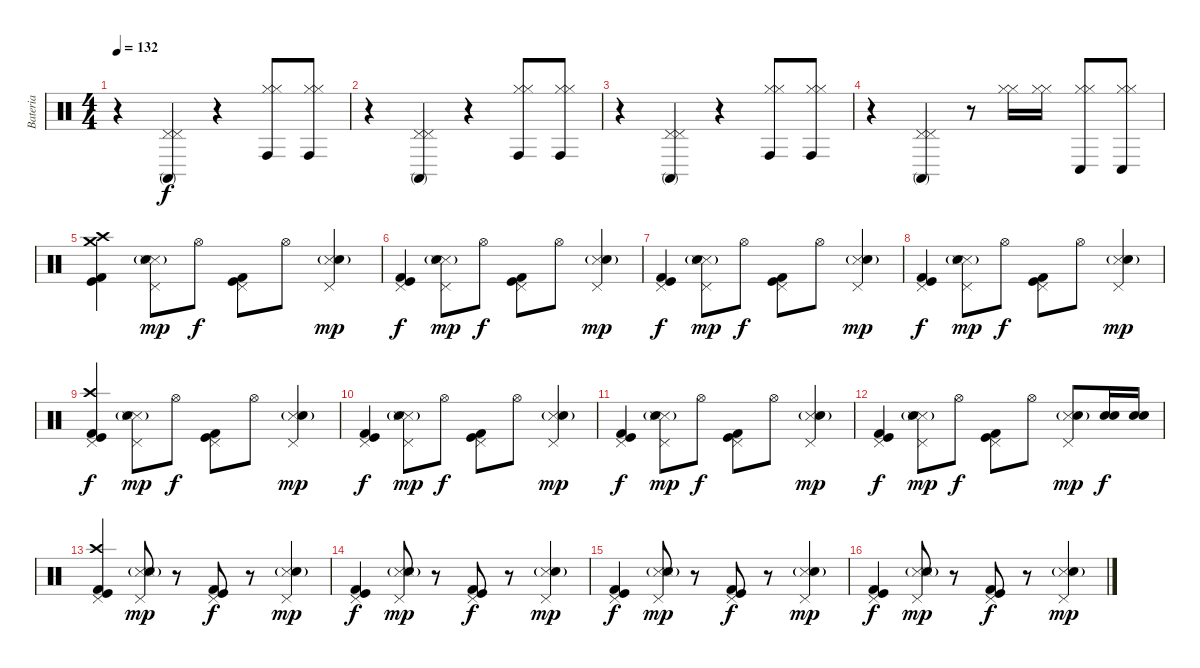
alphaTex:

\track ("Bateria" "Bateria") {instrument percussion}
\staff {score}
\articulation defaults
\ts (4 4)
\tempo 132
\clef neutral
\ks c
r.4{dy f} ("Pedal Hi-Hat (hit)" "Pedal Hi-Hat (hit)" "Conga high (mute)").4 r.4 ("Hi-Hat (closed)" "Hi-Hat (closed)" "Conga high (hit)").8 ("Hi-Hat (closed)" "Hi-Hat (closed)" "Conga high (hit)").8 |
r.4 ("Pedal Hi-Hat (hit)" "Pedal Hi-Hat (hit)" "Conga high (mute)").4 r.4 ("Hi-Hat (closed)" "Hi-Hat (closed)" "Conga high (hit)").8 ("Hi-Hat (closed)" "Hi-Hat (closed)" "Conga high (hit)").8 |
r.4 ("Pedal Hi-Hat (hit)" "Pedal Hi-Hat (hit)" "Conga high (mute)").4 r.4 ("Hi-Hat (closed)" "Hi-Hat (closed)" "Conga high (hit)").8 ("Hi-Hat (closed)" "Hi-Hat (closed)" "Conga high (hit)").8 |
r.4 ("Pedal Hi-Hat (hit)" "Pedal Hi-Hat (hit)" "Conga high (mute)").4 r.8 ("Hi-Hat (closed)" "Hi-Hat (closed)").16 ("Hi-Hat (closed)" "Hi-Hat (closed)").16 ("Hi-Hat (closed)" "Hi-Hat (closed)" "Conga low (hit)").8 ("Hi-Hat (closed)" "Hi-Hat (closed)" "Conga low (hit)").8 |
("Crash high (hit)" "Crash medium (hit)" "Kick (hit) 2" "Kick (hit)").4 ("Pedal Hi-Hat (hit)" "Snare (side stick) 3" "Snare (side stick) 3" "Electric Snare (hit)"{g}).8{dy mp} "Hi-Hat (open)".8{dy f} ("Pedal Hi-Hat (hit)" "Kick (hit) 2" "Kick (hit)").8 "Hi-Hat (open)".8 ("Pedal Hi-Hat (hit)" "Snare (side stick) 3" "Electric Snare (hit)"{g}).4{dy mp} |
("Pedal Hi-Hat (hit)" "Kick (hit) 2" "Kick (hit)").4{dy f} ("Pedal Hi-Hat (hit)" "Snare (side stick) 3" "Snare (side stick) 3" "Electric Snare (hit)"{g}).8{dy mp} "Hi-Hat (open)".8{dy f} ("Pedal Hi-Hat (hit)" "Kick (hit) 2" "Kick (hit)").8 "Hi-Hat (open)".8 ("Pedal Hi-Hat (hit)" "Snare (side stick) 3" "Electric Snare (hit)"{g}).4{dy mp} |
("Pedal Hi-Hat (hit)" "Kick (hit) 2" "Kick (hit)").4{dy f} ("Pedal Hi-Hat (hit)" "Snare (side stick) 3" "Snare (side stick) 3" "Electric Snare (hit)"{g}).8{dy mp} "Hi-Hat (open)".8{dy f} ("Pedal Hi-Hat (hit)" "Kick (hit) 2" "Kick (hit)").8 "Hi-Hat (open)".8 ("Pedal Hi-Hat (hit)" "Snare (side stick) 3" "Electric Snare (hit)"{g}).4{dy mp} |
("Pedal Hi-Hat (hit)" "Kick (hit) 2" "Kick (hit)").4{dy f} ("Pedal Hi-Hat (hit)" "Snare (side stick) 3" "Snare (side stick) 3" "Electric Snare (hit)"{g}).8{dy mp} "Hi-Hat (open)".8{dy f} ("Pedal Hi-Hat (hit)" "Kick (hit) 2" "Kick (hit)").8 "Hi-Hat (open)".8 ("Pedal Hi-Hat (hit)" "Snare (side stick) 3" "Electric Snare (hit)"{g}).4{dy mp} |
("Pedal Hi-Hat (hit)" "Crash high (hit)" "Kick (hit) 2" "Kick (hit)").4{dy f} ("Pedal Hi-Hat (hit)" "Snare (side stick) 3" "Snare (side stick) 3" "Electric Snare (hit)"{g}).8{dy mp} "Hi-Hat (open)".8{dy f} ("Pedal Hi-Hat (hit)" "Kick (hit) 2" "Kick (hit)").8 "Hi-Hat (open)".8 ("Pedal Hi-Hat (hit)" "Snare (side stick) 3" "Electric Snare (hit)"{g}).4{dy mp} |
("Pedal Hi-Hat (hit)" "Kick (hit) 2" "Kick (hit)").4{dy f} ("Pedal Hi-Hat (hit)" "Snare (side stick) 3" "Snare (side stick) 3" "Electric Snare (hit)"{g}).8{dy mp} "Hi-Hat (open)".8{dy f} ("Pedal Hi-Hat (hit)" "Kick (hit) 2" "Kick (hit)").8 "Hi-Hat (open)".8 ("Pedal Hi-Hat (hit)" "Snare (side stick) 3" "Electric Snare (hit)"{g}).4{dy mp} |
("Pedal Hi-Hat (hit)" "Kick (hit) 2" "Kick (hit)").4{dy f} ("Pedal Hi-Hat (hit)" "Snare (side stick) 3" "Snare (side stick) 3" "Electric Snare (hit)"{g}).8{dy mp} "Hi-Hat (open)".8{dy f} ("Pedal Hi-Hat (hit)" "Kick (hit) 2" "Kick (hit)").8 "Hi-Hat (open)".8 ("Pedal Hi-Hat (hit)" "Snare (side stick) 3" "Electric Snare (hit)"{g}).4{dy mp} |
("Pedal Hi-Hat (hit)" "Kick (hit) 2" "Kick (hit)").4{dy f} ("Pedal Hi-Hat (hit)" "Snare (side stick) 3" "Snare (side stick) 3" "Electric Snare (hit)"{g}).8{dy mp} "Hi-Hat (open)".8{dy f} ("Pedal Hi-Hat (hit)" "Kick (hit) 2" "Kick (hit)").8 "Hi-Hat (open)".8 ("Pedal Hi-Hat (hit)" "Snare (side stick) 3" "Electric Snare (hit)"{g}).8{dy mp} ("Electric Snare (hit)" "Snare (hit) 2").16{dy f} ("Electric Snare (hit)" "Snare (hit) 2").16 |
("Pedal Hi-Hat (hit)" "Crash high (hit)" "Kick (hit) 2" "Kick (hit)").4 ("Pedal Hi-Hat (hit)" "Snare (side stick) 3" "Snare (side stick) 3" "Electric Snare (hit)"{g}).8{dy mp} r.8 ("Pedal Hi-Hat (hit)" "Kick (hit) 2" "Kick (hit)").8{dy f} r.8 ("Pedal Hi-Hat (hit)" "Snare (side stick) 3" "Electric Snare (hit)"{g}).4{dy mp} |
("Pedal Hi-Hat (hit)" "Kick (hit) 2" "Kick (hit)").4{dy f} ("Pedal Hi-Hat (hit)" "Snare (side stick) 3" "Snare (side stick) 3" "Electric Snare (hit)"{g}).8{dy mp} r.8 ("Pedal Hi-Hat (hit)" "Kick (hit) 2" "Kick (hit)").8{dy f} r.8 ("Pedal Hi-Hat (hit)" "Snare (side stick) 3" "Electric Snare (hit)"{g}).4{dy mp} |
("Pedal Hi-Hat (hit)" "Kick (hit) 2" "Kick (hit)").4{dy f} ("Pedal Hi-Hat (hit)" "Snare (side stick) 3" "Snare (side stick) 3" "Electric Snare (hit)"{g}).8{dy mp} r.8 ("Pedal Hi-Hat (hit)" "Kick (hit) 2" "Kick (hit)").8{dy f} r.8 ("Pedal Hi-Hat (hit)" "Snare (side stick) 3" "Electric Snare (hit)"{g}).4{dy mp} |
("Pedal Hi-Hat (hit)" "Kick (hit) 2" "Kick (hit)").4{dy f} ("Pedal Hi-Hat (hit)" "Snare (side stick) 3" "Snare (side stick) 3" "Electric Snare (hit)"{g}).8{dy mp} r.8 ("Pedal Hi-Hat (hit)" "Kick (hit) 2" "Kick (hit)").8{dy f} r.8 ("Pedal Hi-Hat (hit)" "Snare (side stick) 3" "Electric Snare (hit)"{g}).4{dy mp}
